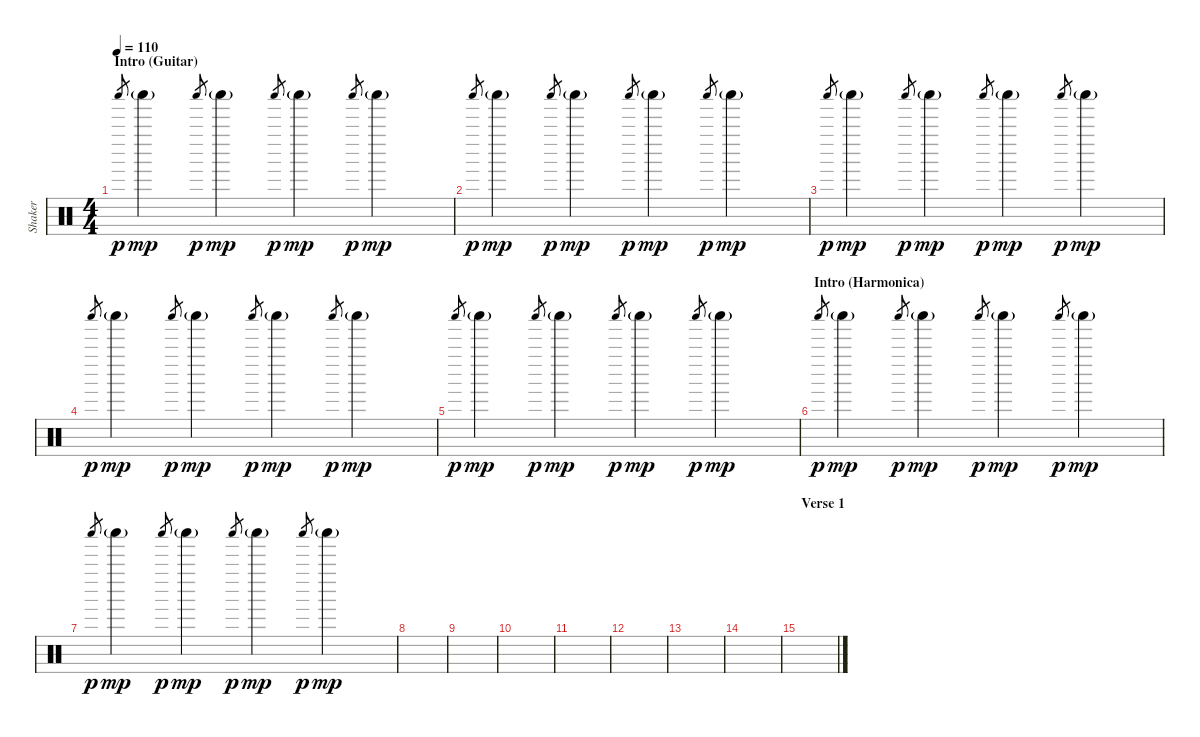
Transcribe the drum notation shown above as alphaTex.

\track ("Shaker" "Shaker") {instrument percussion}
\staff {score}
\articulation defaults
\ts (4 4)
\section ("" "Intro (Guitar)")
\tempo 110
\clef neutral
\ks c "Shaker (hit)".8{gr dy p} "Shaker (hit)"{g}.4{dy mp} "Shaker (hit)".8{gr dy p} "Shaker (hit)"{g}.4{dy mp} "Shaker (hit)".8{gr dy p} "Shaker (hit)"{g}.4{dy mp} "Shaker (hit)".8{gr dy p} "Shaker (hit)"{g}.4{dy mp}
|
"Shaker (hit)".8{gr dy p} "Shaker (hit)"{g}.4{dy mp} "Shaker (hit)".8{gr dy p} "Shaker (hit)"{g}.4{dy mp} "Shaker (hit)".8{gr dy p} "Shaker (hit)"{g}.4{dy mp} "Shaker (hit)".8{gr dy p} "Shaker (hit)"{g}.4{dy mp} |
"Shaker (hit)".8{gr dy p} "Shaker (hit)"{g}.4{dy mp} "Shaker (hit)".8{gr dy p} "Shaker (hit)"{g}.4{dy mp} "Shaker (hit)".8{gr dy p} "Shaker (hit)"{g}.4{dy mp} "Shaker (hit)".8{gr dy p} "Shaker (hit)"{g}.4{dy mp} |
"Shaker (hit)".8{gr dy p} "Shaker (hit)"{g}.4{dy mp} "Shaker (hit)".8{gr dy p} "Shaker (hit)"{g}.4{dy mp} "Shaker (hit)".8{gr dy p} "Shaker (hit)"{g}.4{dy mp} "Shaker (hit)".8{gr dy p} "Shaker (hit)"{g}.4{dy mp} |
"Shaker (hit)".8{gr dy p} "Shaker (hit)"{g}.4{dy mp} "Shaker (hit)".8{gr dy p} "Shaker (hit)"{g}.4{dy mp} "Shaker (hit)".8{gr dy p} "Shaker (hit)"{g}.4{dy mp} "Shaker (hit)".8{gr dy p} "Shaker (hit)"{g}.4{dy mp} |
\section ("" "Intro (Harmonica)")
"Shaker (hit)".8{gr dy p} "Shaker (hit)"{g}.4{dy mp} "Shaker (hit)".8{gr dy p} "Shaker (hit)"{g}.4{dy mp} "Shaker (hit)".8{gr dy p} "Shaker (hit)"{g}.4{dy mp} "Shaker (hit)".8{gr dy p} "Shaker (hit)"{g}.4{dy mp} |
"Shaker (hit)".8{gr dy p} "Shaker (hit)"{g}.4{dy mp} "Shaker (hit)".8{gr dy p} "Shaker (hit)"{g}.4{dy mp} "Shaker (hit)".8{gr dy p} "Shaker (hit)"{g}.4{dy mp} "Shaker (hit)".8{gr dy p} "Shaker (hit)"{g}.4{dy mp} |
|
|
|
|
|
|
|
\section ("" "Verse 1")
